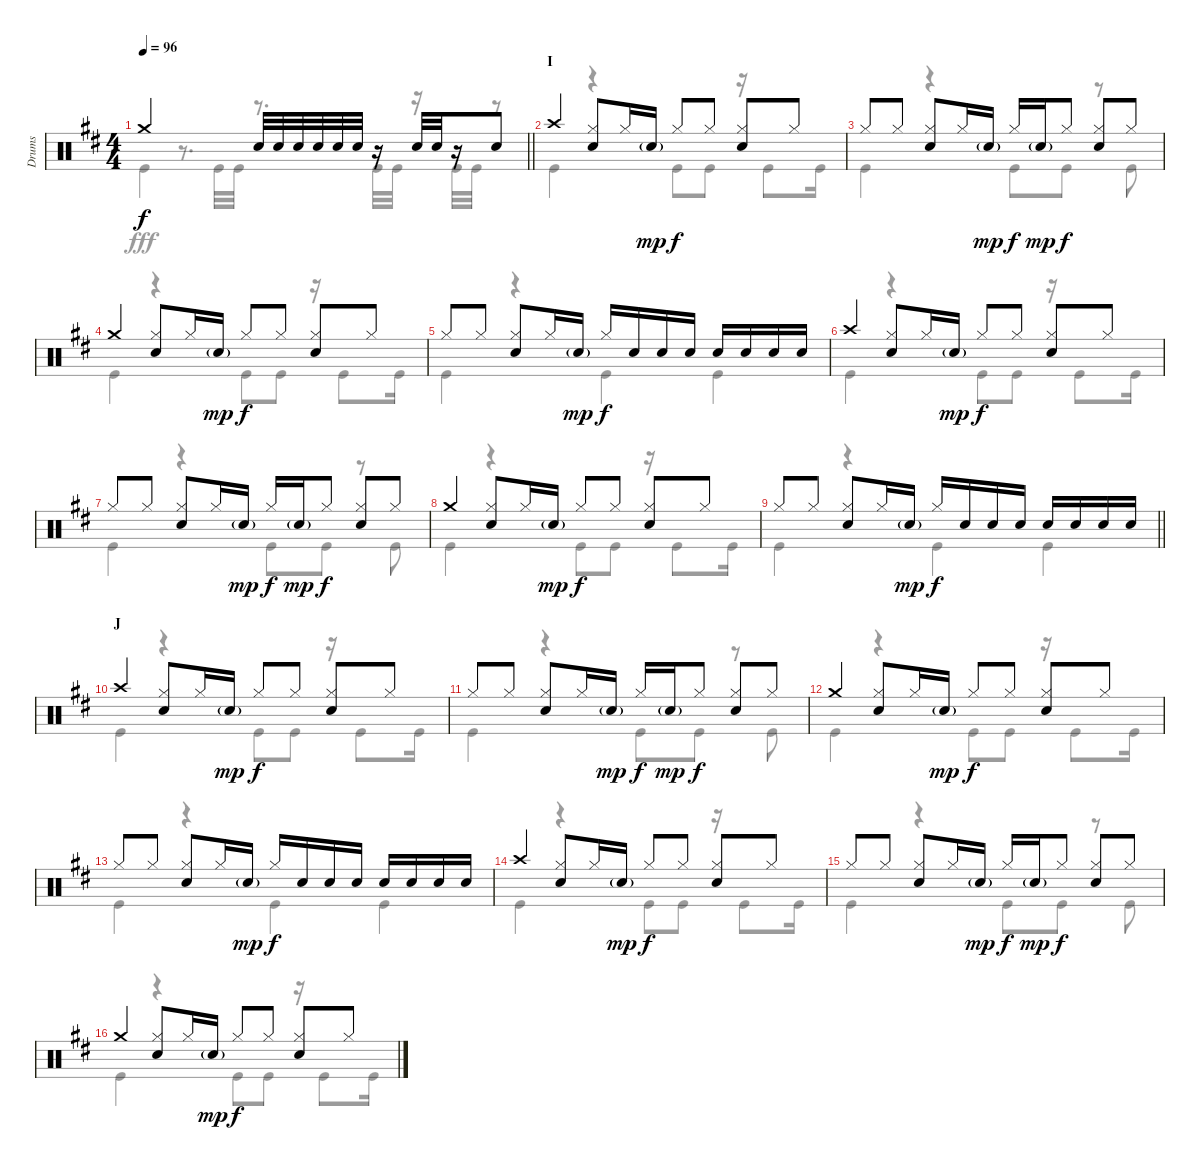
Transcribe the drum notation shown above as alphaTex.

\track ("Drums" "Drums") {instrument percussion}
\staff {score}
\articulation defaults
\voice
\ts (4 4)
\tempo 96
\clef neutral
\barLineRight lightlight
\ks d "Crash medium (hit)".2{dy f} "Snare (hit) 2".32 "Snare (hit) 2".32 "Snare (hit) 2".32 "Snare (hit) 2".32 "Snare (hit) 2".32 "Snare (hit) 2".32
r.16 "Snare (hit) 2".32 "Snare (hit) 2".32 r.16 "Snare (hit) 2".8 |
\section ("" "I")
"Crash high (hit)".4 ("Hi-Hat (closed)" "Snare (hit) 2").8 "Hi-Hat (closed)".16 "Snare (hit) 2"{g}.16{dy mp} "Hi-Hat (closed)".8{dy f} "Hi-Hat (closed)".8 ("Hi-Hat (closed)" "Snare (hit) 2").8 "Hi-Hat (closed)".8 |
"Hi-Hat (closed)".8 "Hi-Hat (closed)".8 ("Hi-Hat (closed)" "Snare (hit) 2").8 "Hi-Hat (closed)".16 "Snare (hit) 2"{g}.16{dy mp} "Hi-Hat (closed)".16{dy f} "Snare (hit) 2"{g}.16{dy mp} "Hi-Hat (closed)".8{dy f} ("Hi-Hat (closed)" "Snare (hit) 2").8 "Hi-Hat (closed)".8 |
"Crash medium (hit)".4 ("Hi-Hat (closed)" "Snare (hit) 2").8 "Hi-Hat (closed)".16 "Snare (hit) 2"{g}.16{dy mp} "Hi-Hat (closed)".8{dy f} "Hi-Hat (closed)".8 ("Hi-Hat (closed)" "Snare (hit) 2").8 "Hi-Hat (closed)".8 |
"Hi-Hat (closed)".8 "Hi-Hat (closed)".8 ("Hi-Hat (closed)" "Snare (hit) 2").8 "Hi-Hat (closed)".16 "Snare (hit) 2"{g}.16{dy mp} "Hi-Hat (closed)".16{dy f} "Snare (hit) 2".16 "Snare (hit) 2".16 "Snare (hit) 2".16 "Snare (hit) 2".16 "Snare (hit) 2".16 "Snare (hit) 2".16 "Snare (hit) 2".16 |
"Crash high (hit)".4 ("Hi-Hat (closed)" "Snare (hit) 2").8 "Hi-Hat (closed)".16 "Snare (hit) 2"{g}.16{dy mp} "Hi-Hat (closed)".8{dy f} "Hi-Hat (closed)".8 ("Hi-Hat (closed)" "Snare (hit) 2").8 "Hi-Hat (closed)".8 |
"Hi-Hat (closed)".8 "Hi-Hat (closed)".8 ("Hi-Hat (closed)" "Snare (hit) 2").8 "Hi-Hat (closed)".16 "Snare (hit) 2"{g}.16{dy mp} "Hi-Hat (closed)".16{dy f} "Snare (hit) 2"{g}.16{dy mp} "Hi-Hat (closed)".8{dy f} ("Hi-Hat (closed)" "Snare (hit) 2").8 "Hi-Hat (closed)".8 |
"Crash medium (hit)".4 ("Hi-Hat (closed)" "Snare (hit) 2").8 "Hi-Hat (closed)".16 "Snare (hit) 2"{g}.16{dy mp} "Hi-Hat (closed)".8{dy f} "Hi-Hat (closed)".8 ("Hi-Hat (closed)" "Snare (hit) 2").8 "Hi-Hat (closed)".8 |
\barLineRight lightlight "Hi-Hat (closed)".8 "Hi-Hat (closed)".8
("Hi-Hat (closed)" "Snare (hit) 2").8 "Hi-Hat (closed)".16 "Snare (hit) 2"{g}.16{dy mp} "Hi-Hat (closed)".16{dy f} "Snare (hit) 2".16 "Snare (hit) 2".16 "Snare (hit) 2".16 "Snare (hit) 2".16 "Snare (hit) 2".16 "Snare (hit) 2".16 "Snare (hit) 2".16 |
\section ("" "J")
"Crash high (hit)".4 ("Hi-Hat (closed)" "Snare (hit) 2").8 "Hi-Hat (closed)".16 "Snare (hit) 2"{g}.16{dy mp} "Hi-Hat (closed)".8{dy f} "Hi-Hat (closed)".8 ("Hi-Hat (closed)" "Snare (hit) 2").8 "Hi-Hat (closed)".8 |
"Hi-Hat (closed)".8 "Hi-Hat (closed)".8 ("Hi-Hat (closed)" "Snare (hit) 2").8 "Hi-Hat (closed)".16 "Snare (hit) 2"{g}.16{dy mp} "Hi-Hat (closed)".16{dy f} "Snare (hit) 2"{g}.16{dy mp} "Hi-Hat (closed)".8{dy f} ("Hi-Hat (closed)" "Snare (hit) 2").8 "Hi-Hat (closed)".8 |
"Crash medium (hit)".4 ("Hi-Hat (closed)" "Snare (hit) 2").8 "Hi-Hat (closed)".16 "Snare (hit) 2"{g}.16{dy mp} "Hi-Hat (closed)".8{dy f} "Hi-Hat (closed)".8 ("Hi-Hat (closed)" "Snare (hit) 2").8 "Hi-Hat (closed)".8 |
"Hi-Hat (closed)".8 "Hi-Hat (closed)".8 ("Hi-Hat (closed)" "Snare (hit) 2").8 "Hi-Hat (closed)".16 "Snare (hit) 2"{g}.16{dy mp} "Hi-Hat (closed)".16{dy f} "Snare (hit) 2".16 "Snare (hit) 2".16 "Snare (hit) 2".16 "Snare (hit) 2".16 "Snare (hit) 2".16 "Snare (hit) 2".16 "Snare (hit) 2".16 |
"Crash high (hit)".4 ("Hi-Hat (closed)" "Snare (hit) 2").8 "Hi-Hat (closed)".16 "Snare (hit) 2"{g}.16{dy mp} "Hi-Hat (closed)".8{dy f} "Hi-Hat (closed)".8 ("Hi-Hat (closed)" "Snare (hit) 2").8 "Hi-Hat (closed)".8 |
"Hi-Hat (closed)".8 "Hi-Hat (closed)".8 ("Hi-Hat (closed)" "Snare (hit) 2").8 "Hi-Hat (closed)".16 "Snare (hit) 2"{g}.16{dy mp} "Hi-Hat (closed)".16{dy f} "Snare (hit) 2"{g}.16{dy mp} "Hi-Hat (closed)".8{dy f} ("Hi-Hat (closed)" "Snare (hit) 2").8 "Hi-Hat (closed)".8 |
"Crash medium (hit)".4 ("Hi-Hat (closed)" "Snare (hit) 2").8 "Hi-Hat (closed)".16 "Snare (hit) 2"{g}.16{dy mp} "Hi-Hat (closed)".8{dy f} "Hi-Hat (closed)".8 ("Hi-Hat (closed)" "Snare (hit) 2").8 "Hi-Hat (closed)".8
\voice
\clef neutral
\ottava regular
\simile none
\barLineRight lightlight
\ks d "Kick (hit)".4{dy fff}
r.8{d} "Kick (hit)".32 "Kick (hit)".32 r.8{d} "Kick (hit)".32 "Kick (hit)".32 r.16 "Kick (hit)".32 "Kick (hit)".32 r.8 |
"Kick (hit)".4 r.4 "Kick (hit)".8 "Kick (hit)".8 r.16 "Kick (hit)".8 "Kick (hit)".16 |
"Kick (hit)".4 r.4 "Kick (hit)".8 "Kick (hit)".8 r.8 "Kick (hit)".8 |
"Kick (hit)".4 r.4 "Kick (hit)".8 "Kick (hit)".8 r.16 "Kick (hit)".8 "Kick (hit)".16 |
"Kick (hit)".4 r.4 "Kick (hit)".4 "Kick (hit)".4 |
"Kick (hit)".4 r.4 "Kick (hit)".8 "Kick (hit)".8 r.16 "Kick (hit)".8 "Kick (hit)".16 |
"Kick (hit)".4 r.4 "Kick (hit)".8 "Kick (hit)".8 r.8 "Kick (hit)".8 |
"Kick (hit)".4 r.4 "Kick (hit)".8 "Kick (hit)".8 r.16 "Kick (hit)".8 "Kick (hit)".16 |
\barLineRight lightlight "Kick (hit)".4
r.4 "Kick (hit)".4 "Kick (hit)".4 |
"Kick (hit)".4 r.4 "Kick (hit)".8 "Kick (hit)".8 r.16 "Kick (hit)".8 "Kick (hit)".16 |
"Kick (hit)".4 r.4 "Kick (hit)".8 "Kick (hit)".8 r.8 "Kick (hit)".8 |
"Kick (hit)".4 r.4 "Kick (hit)".8 "Kick (hit)".8 r.16 "Kick (hit)".8 "Kick (hit)".16 |
"Kick (hit)".4 r.4 "Kick (hit)".4 "Kick (hit)".4 |
"Kick (hit)".4 r.4 "Kick (hit)".8 "Kick (hit)".8 r.16 "Kick (hit)".8 "Kick (hit)".16 |
"Kick (hit)".4 r.4 "Kick (hit)".8 "Kick (hit)".8 r.8 "Kick (hit)".8 |
"Kick (hit)".4 r.4 "Kick (hit)".8 "Kick (hit)".8 r.16 "Kick (hit)".8 "Kick (hit)".16
